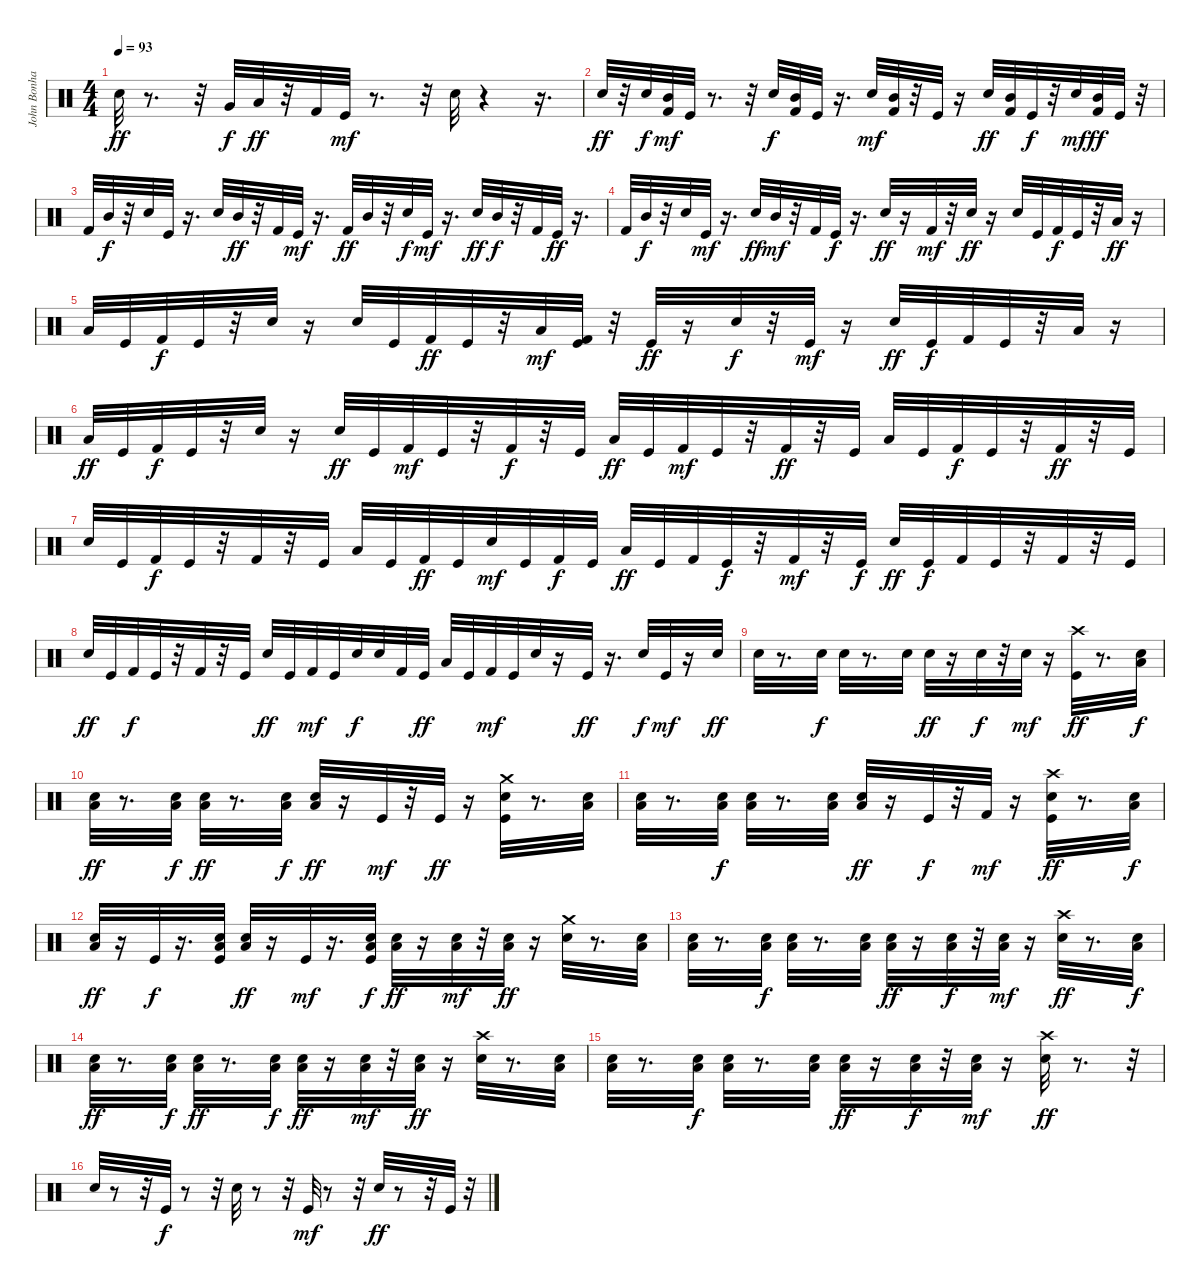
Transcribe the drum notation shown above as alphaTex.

\track ("John Bonham" "John Bonha") {instrument percussion}
\staff {score}
\articulation defaults
\ts (4 4)
\tempo 93
\clef neutral
\ks c "Electric Snare (hit)".32{dy ff}
r.8{d} r.32 "Very Low Tom (hit)".32{dy f} "Low Tom (hit)".32{dy ff} r.32 "Kick (hit) 2".32 "Kick (hit)".32{dy mf} r.8{d} r.32 "Electric Snare (hit)".32 r.4 r.16{d} |
"Electric Snare (hit)".32{dy ff} r.32 "Snare (hit) 2".32{dy f} ("Mid Tom (hit)" "Kick (hit) 2").32{dy mf} "Kick (hit)".32 r.8{d} r.32 "Snare (hit) 2".32{dy f} ("Mid Tom (hit)" "Kick (hit) 2").32 "Kick (hit)".32 r.16{d} "Snare (hit) 2".32{dy mf} ("Mid Tom (hit)" "Kick (hit) 2").32 r.32 "Kick (hit)".32 r.16 "Snare (hit) 2".32{dy ff} ("Mid Tom (hit)" "Kick (hit) 2").32 "Kick (hit)".32{dy f} r.32 "Snare (hit) 2".32{dy mf} ("Mid Tom (hit)" "Kick (hit) 2").32{dy ff} "Kick (hit)".32 r.32 |
"Kick (hit) 2".32 "Mid Tom (hit)".32{dy f} r.32 "Electric Snare (hit)".32 "Kick (hit)".32 r.16{d} "Snare (hit) 2".32 "Mid Tom (hit)".32{dy ff} r.32 "Kick (hit) 2".32 "Kick (hit)".32{dy mf} r.16{d} "Kick (hit) 2".32{dy ff} "Mid Tom (hit)".32 r.32 "Snare (hit) 2".32{dy f} "Kick (hit)".32{dy mf} r.16{d} "Snare (hit) 2".32{dy ff} "Mid Tom (hit)".32{dy f} r.32 "Kick (hit) 2".32 "Kick (hit)".32{dy ff} r.16{d} |
"Kick (hit) 2".32 "Mid Tom (hit)".32{dy f} r.32 "Snare (hit) 2".32 "Kick (hit)".32{dy mf} r.16{d} "Snare (hit) 2".32{dy ff} "Mid Tom (hit)".32{dy mf} r.32 "Kick (hit) 2".32 "Kick (hit)".32{dy f} r.16{d} "Snare (hit) 2".32{dy ff} r.16 "Kick (hit) 2".32{dy mf} r.32 "Snare (hit) 2".32{dy ff} r.16 "Snare (hit) 2".32 "Kick (hit)".32 "Kick (hit) 2".32{dy f} "Kick (hit)".32 r.32 "Low Tom (hit)".32{dy ff} r.16 |
"Low Tom (hit)".32 "Kick (hit)".32 "Kick (hit) 2".32{dy f} "Kick (hit)".32 r.32 "Snare (hit) 2".32 r.16 "Snare (hit) 2".32 "Kick (hit)".32 "Kick (hit) 2".32{dy ff} "Kick (hit)".32 r.32 "Low Tom (hit)".32{dy mf} ("Kick (hit)" "Kick (hit) 2").32 r.32 "Kick (hit)".32{dy ff} r.16 "Snare (hit) 2".32{dy f} r.32 "Kick (hit)".32{dy mf} r.16 "Snare (hit) 2".32{dy ff} "Kick (hit)".32{dy f} "Kick (hit) 2".32 "Kick (hit)".32 r.32 "Low Tom (hit)".32 r.16 |
"Low Tom (hit)".32{dy ff} "Kick (hit)".32 "Kick (hit) 2".32{dy f} "Kick (hit)".32 r.32 "Snare (hit) 2".32 r.16 "Snare (hit) 2".32{dy ff} "Kick (hit)".32 "Kick (hit) 2".32{dy mf} "Kick (hit)".32 r.32 "Kick (hit) 2".32{dy f} r.32 "Kick (hit)".32 "Low Tom (hit)".32{dy ff} "Kick (hit)".32 "Kick (hit) 2".32{dy mf} "Kick (hit)".32 r.32 "Kick (hit) 2".32{dy ff} r.32 "Kick (hit)".32 "Low Tom (hit)".32 "Kick (hit)".32 "Kick (hit) 2".32{dy f} "Kick (hit)".32 r.32 "Kick (hit) 2".32{dy ff} r.32 "Kick (hit)".32 |
"Snare (hit) 2".32 "Kick (hit)".32 "Kick (hit) 2".32{dy f} "Kick (hit)".32 r.32 "Kick (hit) 2".32 r.32 "Kick (hit)".32 "Low Tom (hit)".32 "Kick (hit)".32 "Kick (hit) 2".32{dy ff} "Kick (hit)".32 "Snare (hit) 2".32{dy mf} "Kick (hit)".32 "Kick (hit) 2".32{dy f} "Kick (hit)".32 "Low Tom (hit)".32{dy ff} "Kick (hit)".32 "Kick (hit) 2".32 "Kick (hit)".32{dy f} r.32 "Kick (hit) 2".32{dy mf} r.32 "Kick (hit)".32{dy f} "Snare (hit) 2".32{dy ff} "Kick (hit)".32{dy f} "Kick (hit) 2".32 "Kick (hit)".32 r.32 "Kick (hit) 2".32 r.32 "Kick (hit)".32 |
"Snare (hit) 2".32{dy ff} "Kick (hit)".32 "Kick (hit) 2".32{dy f} "Kick (hit)".32 r.32 "Kick (hit) 2".32 r.32 "Kick (hit)".32 "Snare (hit) 2".32{dy ff} "Kick (hit)".32 "Kick (hit) 2".32{dy mf} "Kick (hit)".32 "Snare (hit) 2".32{dy f} "Snare (hit) 2".32 "Kick (hit) 2".32 "Kick (hit)".32{dy ff} "Low Tom (hit)".32 "Kick (hit)".32 "Kick (hit) 2".32{dy mf} "Kick (hit)".32 "Snare (hit) 2".32 r.16 "Kick (hit)".32{dy ff} r.16{d} "Snare (hit) 2".32{dy f} "Kick (hit)".32{dy mf} r.16 "Snare (hit) 2".32{dy ff} |
"Snare (hit) 2".32 r.8{d} "Snare (hit) 2".32{dy f} "Snare (hit) 2".32 r.8{d} "Snare (hit) 2".32 "Snare (hit) 2".32{dy ff} r.16 "Snare (hit) 2".32{dy f} r.32 "Snare (hit) 2".32{dy mf} r.16 ("Crash high (hit)" "Kick (hit)").32{dy ff} r.8{d} ("Snare (hit) 2" "Low Tom (hit)").32{dy f} |
("Snare (hit) 2" "Low Tom (hit)").32{dy ff} r.8{d} ("Snare (hit) 2" "Low Tom (hit)").32{dy f} ("Snare (hit) 2" "Low Tom (hit)").32{dy ff} r.8{d} ("Snare (hit) 2" "Low Tom (hit)").32{dy f} ("Snare (hit) 2" "Low Tom (hit)").32{dy ff} r.16 "Kick (hit)".32{dy mf} r.32 "Kick (hit)".32{dy ff} r.16 ("Crash medium (hit)" "Snare (hit) 2" "Kick (hit)").32 r.8{d} ("Snare (hit) 2" "Low Tom (hit)").32 |
("Low Tom (hit)" "Snare (hit) 2").32 r.8{d} ("Snare (hit) 2" "Low Tom (hit)").32{dy f} ("Snare (hit) 2" "Low Tom (hit)").32 r.8{d} ("Low Tom (hit)" "Snare (hit) 2").32 ("Low Tom (hit)" "Snare (hit) 2").32{dy ff} r.16 "Kick (hit)".32{dy f} r.32 "Kick (hit) 2".32{dy mf} r.16 ("Crash high (hit)" "Snare (hit) 2" "Kick (hit)").32{dy ff} r.8{d} ("Snare (hit) 2" "Low Tom (hit)").32{dy f} |
("Snare (hit) 2" "Low Tom (hit)").32{dy ff} r.16 "Kick (hit)".32{dy f} r.16{d} ("Low Tom (hit)" "Snare (hit) 2" "Kick (hit)").32 ("Snare (hit) 2" "Low Tom (hit)").32{dy ff} r.16 "Kick (hit)".32{dy mf} r.16{d} ("Low Tom (hit)" "Snare (hit) 2" "Kick (hit)").32{dy f} ("Snare (hit) 2" "Low Tom (hit)").32{dy ff} r.16 ("Snare (hit) 2" "Low Tom (hit)").32{dy mf} r.32 ("Snare (hit) 2" "Low Tom (hit)").32{dy ff} r.16 ("Crash medium (hit)" "Snare (hit) 2").32 r.8{d} ("Snare (hit) 2" "Low Tom (hit)").32 |
("Snare (hit) 2" "Low Tom (hit)").32 r.8{d} ("Low Tom (hit)" "Snare (hit) 2").32{dy f} ("Snare (hit) 2" "Low Tom (hit)").32 r.8{d} ("Low Tom (hit)" "Snare (hit) 2").32 ("Low Tom (hit)" "Snare (hit) 2").32{dy ff} r.16 ("Snare (hit) 2" "Low Tom (hit)").32{dy f} r.32 ("Low Tom (hit)" "Snare (hit) 2").32{dy mf} r.16 ("Crash high (hit)" "Snare (hit) 2").32{dy ff} r.8{d} ("Snare (hit) 2" "Low Tom (hit)").32{dy f} |
("Snare (hit) 2" "Low Tom (hit)").32{dy ff} r.8{d} ("Low Tom (hit)" "Snare (hit) 2").32{dy f} ("Snare (hit) 2" "Low Tom (hit)").32{dy ff} r.8{d} ("Low Tom (hit)" "Snare (hit) 2").32{dy f} ("Low Tom (hit)" "Snare (hit) 2").32{dy ff} r.16 ("Snare (hit) 2" "Low Tom (hit)").32{dy mf} r.32 ("Low Tom (hit)" "Snare (hit) 2").32{dy ff} r.16 ("Crash high (hit)" "Snare (hit) 2").32 r.8{d} ("Snare (hit) 2" "Low Tom (hit)").32 |
("Snare (hit) 2" "Low Tom (hit)").32 r.8{d} ("Low Tom (hit)" "Snare (hit) 2").32{dy f} ("Snare (hit) 2" "Low Tom (hit)").32 r.8{d} ("Low Tom (hit)" "Snare (hit) 2").32 ("Low Tom (hit)" "Snare (hit) 2").32{dy ff} r.16 ("Snare (hit) 2" "Low Tom (hit)").32{dy f} r.32 ("Low Tom (hit)" "Snare (hit) 2").32{dy mf} r.16 ("Crash high (hit)" "Snare (hit) 2").32{dy ff} r.8{d} r.32 |
"Snare (hit) 2".32 r.8 r.32 "Kick (hit)".32{dy f} r.8 r.32 "Snare (hit) 2".32 r.8 r.32 "Kick (hit)".32{dy mf} r.8 r.32 "Snare (hit) 2".32{dy ff} r.8 r.32 "Kick (hit)".32 r.32
